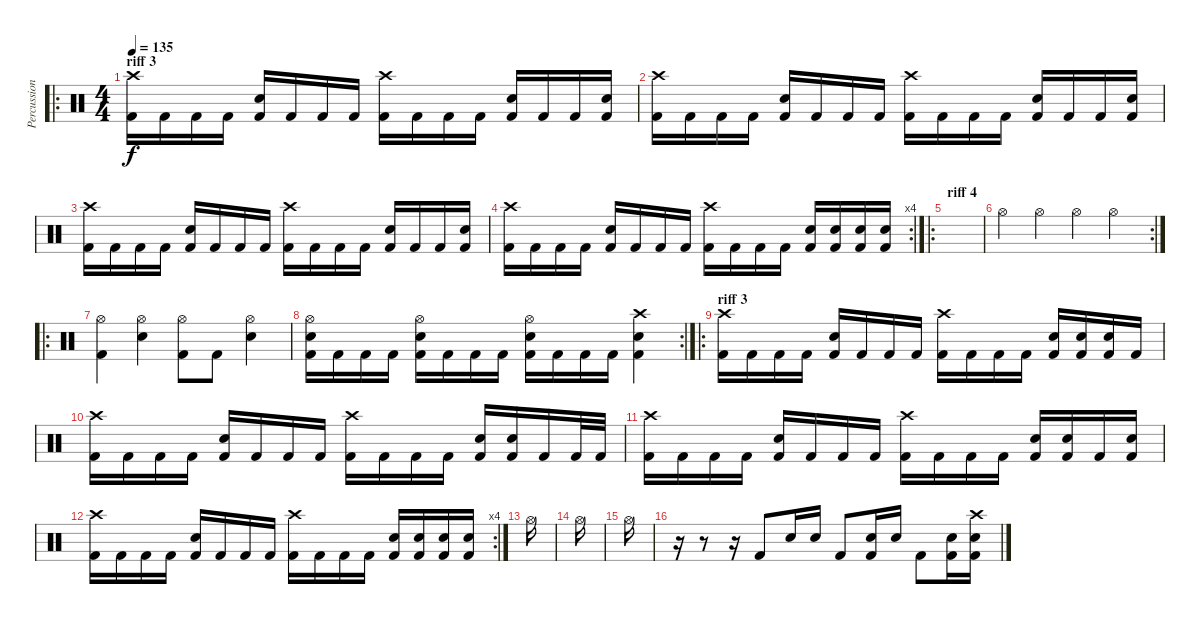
\track ("Percussions" "Percussion") {instrument percussion}
\staff {score}
\articulation defaults
\ro
\ts (4 4)
\section ("" "riff 3")
\tempo 135
\clef neutral
\ks c
("Crash high (hit)" "Kick (hit) 2").16{dy f} "Kick (hit) 2".16 "Kick (hit) 2".16 "Kick (hit) 2".16 ("Snare (hit) 2" "Kick (hit) 2").16 "Kick (hit) 2".16 "Kick (hit) 2".16 "Kick (hit) 2".16 ("Crash high (hit)" "Kick (hit) 2").16 "Kick (hit) 2".16 "Kick (hit) 2".16 "Kick (hit) 2".16 ("Snare (hit) 2" "Kick (hit) 2").16 "Kick (hit) 2".16 "Kick (hit) 2".16 ("Snare (hit) 2" "Kick (hit) 2").16 |
("Crash high (hit)" "Kick (hit) 2").16 "Kick (hit) 2".16 "Kick (hit) 2".16 "Kick (hit) 2".16 ("Snare (hit) 2" "Kick (hit) 2").16 "Kick (hit) 2".16 "Kick (hit) 2".16 "Kick (hit) 2".16 ("Crash high (hit)" "Kick (hit) 2").16 "Kick (hit) 2".16 "Kick (hit) 2".16 "Kick (hit) 2".16 ("Snare (hit) 2" "Kick (hit) 2").16 "Kick (hit) 2".16 "Kick (hit) 2".16 ("Snare (hit) 2" "Kick (hit) 2").16 |
("Crash high (hit)" "Kick (hit) 2").16 "Kick (hit) 2".16 "Kick (hit) 2".16 "Kick (hit) 2".16 ("Snare (hit) 2" "Kick (hit) 2").16 "Kick (hit) 2".16 "Kick (hit) 2".16 "Kick (hit) 2".16 ("Crash high (hit)" "Kick (hit) 2").16 "Kick (hit) 2".16 "Kick (hit) 2".16 "Kick (hit) 2".16 ("Snare (hit) 2" "Kick (hit) 2").16 "Kick (hit) 2".16 "Kick (hit) 2".16 ("Snare (hit) 2" "Kick (hit) 2").16 |
\rc 4
("Crash high (hit)" "Kick (hit) 2").16 "Kick (hit) 2".16 "Kick (hit) 2".16 "Kick (hit) 2".16 ("Snare (hit) 2" "Kick (hit) 2").16 "Kick (hit) 2".16 "Kick (hit) 2".16 "Kick (hit) 2".16 ("Crash high (hit)" "Kick (hit) 2").16 "Kick (hit) 2".16 "Kick (hit) 2".16 "Kick (hit) 2".16 ("Snare (hit) 2" "Kick (hit) 2").16 ("Snare (hit) 2" "Kick (hit) 2").16 ("Snare (hit) 2" "Kick (hit) 2").16 ("Snare (hit) 2" "Kick (hit) 2").16 |
\ro
\section ("" "riff 4")
|
\rc 2 "Hi-Hat (open)".4 "Hi-Hat (open)".4 "Hi-Hat (open)".4 "Hi-Hat (open)".4
|
\ro
("Hi-Hat (open)" "Kick (hit) 2").4 ("Hi-Hat (open)" "Snare (hit) 2").4 ("Hi-Hat (open)" "Kick (hit) 2").8 "Kick (hit) 2".8 ("Hi-Hat (open)" "Snare (hit) 2").4 |
\rc 2
("Hi-Hat (open)" "Snare (hit) 2" "Kick (hit) 2").16 "Kick (hit) 2".16 "Kick (hit) 2".16 "Kick (hit) 2".16 ("Hi-Hat (open)" "Snare (hit) 2" "Kick (hit) 2").16 "Kick (hit) 2".16 "Kick (hit) 2".16 "Kick (hit) 2".16 ("Hi-Hat (open)" "Snare (hit) 2" "Kick (hit) 2").16 "Kick (hit) 2".16 "Kick (hit) 2".16 "Kick (hit) 2".16 ("Crash high (hit)" "Snare (hit) 2" "Kick (hit) 2").4 |
\ro
\section ("" "riff 3")
("Crash high (hit)" "Kick (hit) 2").16 "Kick (hit) 2".16 "Kick (hit) 2".16 "Kick (hit) 2".16 ("Snare (hit) 2" "Kick (hit) 2").16 "Kick (hit) 2".16 "Kick (hit) 2".16 "Kick (hit) 2".16 ("Crash high (hit)" "Kick (hit) 2").16 "Kick (hit) 2".16 "Kick (hit) 2".16 "Kick (hit) 2".16 ("Snare (hit) 2" "Kick (hit) 2").16 ("Snare (hit) 2" "Kick (hit) 2").16 ("Snare (hit) 2" "Kick (hit) 2").16 "Kick (hit) 2".16 |
("Crash high (hit)" "Kick (hit) 2").16 "Kick (hit) 2".16 "Kick (hit) 2".16 "Kick (hit) 2".16 ("Snare (hit) 2" "Kick (hit) 2").16 "Kick (hit) 2".16 "Kick (hit) 2".16 "Kick (hit) 2".16 ("Crash high (hit)" "Kick (hit) 2").16 "Kick (hit) 2".16 "Kick (hit) 2".16 "Kick (hit) 2".16 ("Snare (hit) 2" "Kick (hit) 2").16 ("Snare (hit) 2" "Kick (hit) 2").16 "Kick (hit) 2".16 "Kick (hit) 2".32 "Kick (hit) 2".32 |
("Crash high (hit)" "Kick (hit) 2").16 "Kick (hit) 2".16 "Kick (hit) 2".16 "Kick (hit) 2".16 ("Snare (hit) 2" "Kick (hit) 2").16 "Kick (hit) 2".16 "Kick (hit) 2".16 "Kick (hit) 2".16 ("Crash high (hit)" "Kick (hit) 2").16 "Kick (hit) 2".16 "Kick (hit) 2".16 "Kick (hit) 2".16 ("Snare (hit) 2" "Kick (hit) 2").16 ("Snare (hit) 2" "Kick (hit) 2").16 "Kick (hit) 2".16 ("Snare (hit) 2" "Kick (hit) 2").16 |
\rc 4
("Crash high (hit)" "Kick (hit) 2").16 "Kick (hit) 2".16 "Kick (hit) 2".16 "Kick (hit) 2".16 ("Snare (hit) 2" "Kick (hit) 2").16 "Kick (hit) 2".16 "Kick (hit) 2".16 "Kick (hit) 2".16 ("Crash high (hit)" "Kick (hit) 2").16 "Kick (hit) 2".16 "Kick (hit) 2".16 "Kick (hit) 2".16 ("Snare (hit) 2" "Kick (hit) 2").16 ("Snare (hit) 2" "Kick (hit) 2").16 ("Snare (hit) 2" "Kick (hit) 2").16 ("Snare (hit) 2" "Kick (hit) 2").16 |
"Hi-Hat (open)".16 |
"Hi-Hat (open)".16 |
"Hi-Hat (open)".16 |
r.16 r.8 r.16 "Kick (hit) 2".8 "Snare (hit) 2".16 "Snare (hit) 2".16 "Kick (hit) 2".8 ("Snare (hit) 2" "Kick (hit) 2").16 "Snare (hit) 2".16 "Kick (hit) 2".8 ("Snare (hit) 2" "Kick (hit) 2").16 ("Crash high (hit)" "Snare (hit) 2" "Kick (hit) 2").16
